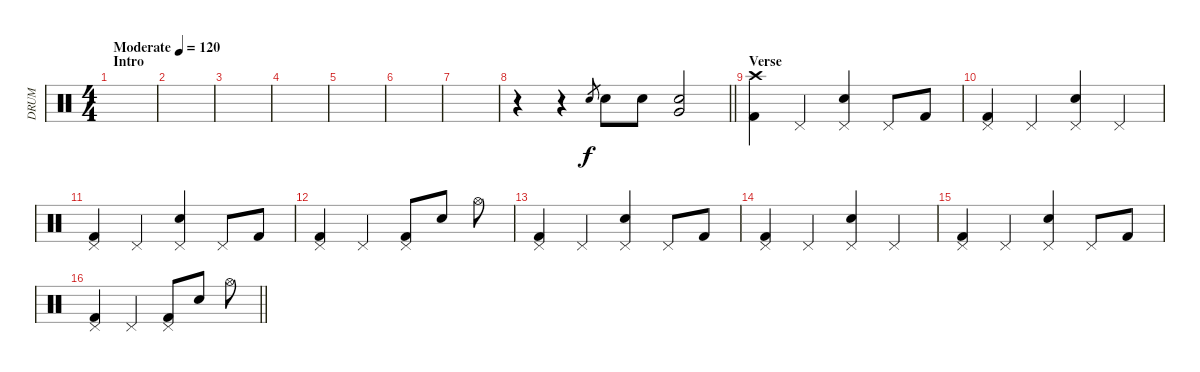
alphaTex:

\track ("DRUM" "DRUM") {instrument percussion}
\staff {score}
\articulation defaults
\ts (4 4)
\section ("" "Intro")
\tempo (120 "Moderate")
\clef neutral
\ks c
|
|
|
|
|
|
|
\barLineRight lightlight
r.4 r.4 "Electric Snare (hit)".8{gr} "Electric Snare (hit)".8 "Electric Snare (hit)".8 ("Very Low Tom (hit)" "Snare (hit)").2 |
\section ("" "Verse")
("Kick (hit) 2" "Crash high (hit)").4 "Pedal Hi-Hat (hit)".4 ("Pedal Hi-Hat (hit)" "Electric Snare (hit)").4 "Pedal Hi-Hat (hit)".8 "Kick (hit) 2".8 |
("Pedal Hi-Hat (hit)" "Kick (hit) 2").4 "Pedal Hi-Hat (hit)".4 ("Pedal Hi-Hat (hit)" "Electric Snare (hit)").4 "Pedal Hi-Hat (hit)".4 |
("Pedal Hi-Hat (hit)" "Kick (hit) 2").4 "Pedal Hi-Hat (hit)".4 ("Pedal Hi-Hat (hit)" "Electric Snare (hit)").4 "Pedal Hi-Hat (hit)".8 "Kick (hit) 2".8 |
("Pedal Hi-Hat (hit)" "Kick (hit) 2").4 "Pedal Hi-Hat (hit)".4 ("Pedal Hi-Hat (hit)" "Kick (hit) 2").8 "Electric Snare (hit)".8 "Hi-Hat (open)".8 |
("Kick (hit) 2" "Pedal Hi-Hat (hit)").4 "Pedal Hi-Hat (hit)".4 ("Pedal Hi-Hat (hit)" "Electric Snare (hit)").4 "Pedal Hi-Hat (hit)".8 "Kick (hit) 2".8 |
("Pedal Hi-Hat (hit)" "Kick (hit) 2").4 "Pedal Hi-Hat (hit)".4 ("Pedal Hi-Hat (hit)" "Electric Snare (hit)").4 "Pedal Hi-Hat (hit)".4 |
("Pedal Hi-Hat (hit)" "Kick (hit) 2").4 "Pedal Hi-Hat (hit)".4 ("Pedal Hi-Hat (hit)" "Electric Snare (hit)").4 "Pedal Hi-Hat (hit)".8 "Kick (hit) 2".8 |
\barLineRight lightlight
("Pedal Hi-Hat (hit)" "Kick (hit) 2").4 "Pedal Hi-Hat (hit)".4 ("Pedal Hi-Hat (hit)" "Kick (hit) 2").8 "Electric Snare (hit)".8 "Hi-Hat (open)".8
